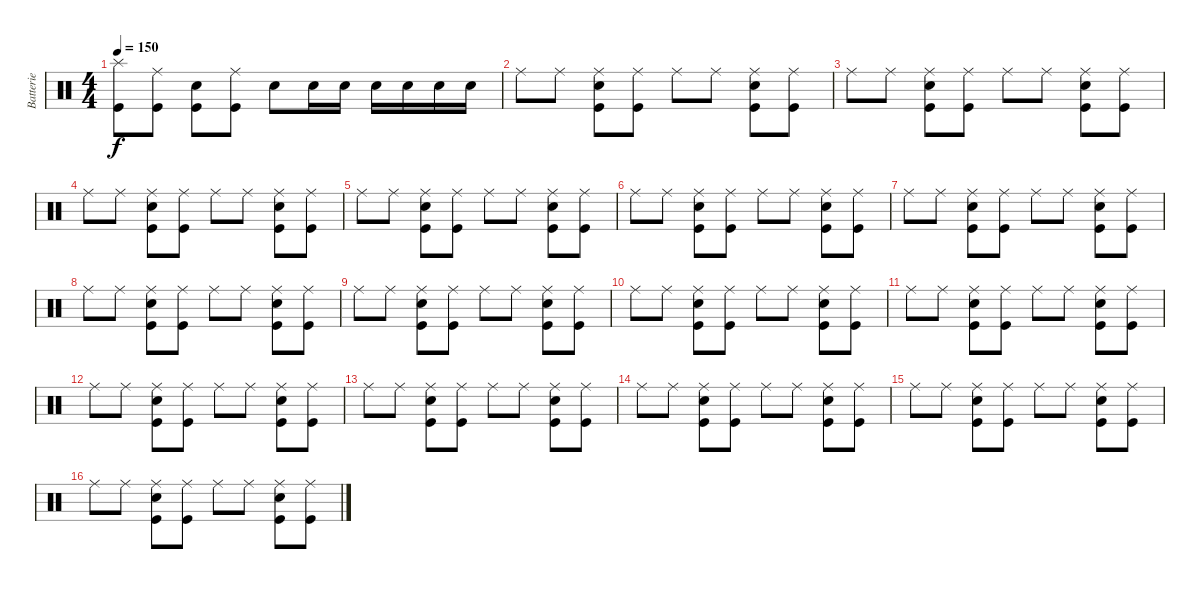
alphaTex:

\track ("Batterie" "Batterie") {instrument percussion}
\staff {score}
\articulation defaults
\ts (4 4)
\tempo 150
\clef neutral
\ks c
("Splash (hit)"{t} "Kick (hit)").8{dy f} ("Ride (middle)" "Kick (hit)").8 ("Electric Snare (hit)" "Kick (hit)").8 ("Ride (middle)" "Kick (hit)").8 "Electric Snare (hit)".8 "Electric Snare (hit)".16 "Electric Snare (hit)".16 "Electric Snare (hit)".16 "Electric Snare (hit)".16 "Electric Snare (hit)".16 "Electric Snare (hit)".16 |
"Ride (middle)".8 "Ride (middle)".8 ("Ride (middle)" "Kick (hit)" "Electric Snare (hit)").8 ("Ride (middle)" "Kick (hit)").8 "Ride (middle)".8 "Ride (middle)".8 ("Ride (middle)" "Kick (hit)" "Electric Snare (hit)").8 ("Ride (middle)" "Kick (hit)").8 |
"Ride (middle)".8 "Ride (middle)".8 ("Ride (middle)" "Kick (hit)" "Electric Snare (hit)").8 ("Ride (middle)" "Kick (hit)").8 "Ride (middle)".8 "Ride (middle)".8 ("Ride (middle)" "Kick (hit)" "Electric Snare (hit)").8 ("Ride (middle)" "Kick (hit)").8 |
"Ride (middle)".8 "Ride (middle)".8 ("Ride (middle)" "Kick (hit)" "Electric Snare (hit)").8 ("Ride (middle)" "Kick (hit)").8 "Ride (middle)".8 "Ride (middle)".8 ("Ride (middle)" "Kick (hit)" "Electric Snare (hit)").8 ("Ride (middle)" "Kick (hit)").8 |
"Ride (middle)".8 "Ride (middle)".8 ("Ride (middle)" "Kick (hit)" "Electric Snare (hit)").8 ("Ride (middle)" "Kick (hit)").8 "Ride (middle)".8 "Ride (middle)".8 ("Ride (middle)" "Kick (hit)" "Electric Snare (hit)").8 ("Ride (middle)" "Kick (hit)").8 |
"Ride (middle)".8 "Ride (middle)".8 ("Ride (middle)" "Kick (hit)" "Electric Snare (hit)").8 ("Ride (middle)" "Kick (hit)").8 "Ride (middle)".8 "Ride (middle)".8 ("Ride (middle)" "Kick (hit)" "Electric Snare (hit)").8 ("Ride (middle)" "Kick (hit)").8 |
"Ride (middle)".8 "Ride (middle)".8 ("Ride (middle)" "Kick (hit)" "Electric Snare (hit)").8 ("Ride (middle)" "Kick (hit)").8 "Ride (middle)".8 "Ride (middle)".8 ("Ride (middle)" "Kick (hit)" "Electric Snare (hit)").8 ("Ride (middle)" "Kick (hit)").8 |
"Ride (middle)".8 "Ride (middle)".8 ("Ride (middle)" "Kick (hit)" "Electric Snare (hit)").8 ("Ride (middle)" "Kick (hit)").8 "Ride (middle)".8 "Ride (middle)".8 ("Ride (middle)" "Kick (hit)" "Electric Snare (hit)").8 ("Ride (middle)" "Kick (hit)").8 |
"Ride (middle)".8 "Ride (middle)".8 ("Ride (middle)" "Kick (hit)" "Electric Snare (hit)").8 ("Ride (middle)" "Kick (hit)").8 "Ride (middle)".8 "Ride (middle)".8 ("Ride (middle)" "Kick (hit)" "Electric Snare (hit)").8 ("Ride (middle)" "Kick (hit)").8 |
"Ride (middle)".8 "Ride (middle)".8 ("Ride (middle)" "Kick (hit)" "Electric Snare (hit)").8 ("Ride (middle)" "Kick (hit)").8 "Ride (middle)".8 "Ride (middle)".8 ("Ride (middle)" "Kick (hit)" "Electric Snare (hit)").8 ("Ride (middle)" "Kick (hit)").8 |
"Ride (middle)".8 "Ride (middle)".8 ("Ride (middle)" "Kick (hit)" "Electric Snare (hit)").8 ("Ride (middle)" "Kick (hit)").8 "Ride (middle)".8 "Ride (middle)".8 ("Ride (middle)" "Kick (hit)" "Electric Snare (hit)").8 ("Ride (middle)" "Kick (hit)").8 |
"Ride (middle)".8 "Ride (middle)".8 ("Ride (middle)" "Kick (hit)" "Electric Snare (hit)").8 ("Ride (middle)" "Kick (hit)").8 "Ride (middle)".8 "Ride (middle)".8 ("Ride (middle)" "Kick (hit)" "Electric Snare (hit)").8 ("Ride (middle)" "Kick (hit)").8 |
"Ride (middle)".8 "Ride (middle)".8 ("Ride (middle)" "Kick (hit)" "Electric Snare (hit)").8 ("Ride (middle)" "Kick (hit)").8 "Ride (middle)".8 "Ride (middle)".8 ("Ride (middle)" "Kick (hit)" "Electric Snare (hit)").8 ("Ride (middle)" "Kick (hit)").8 |
"Ride (middle)".8 "Ride (middle)".8 ("Ride (middle)" "Kick (hit)" "Electric Snare (hit)").8 ("Ride (middle)" "Kick (hit)").8 "Ride (middle)".8 "Ride (middle)".8 ("Ride (middle)" "Kick (hit)" "Electric Snare (hit)").8 ("Ride (middle)" "Kick (hit)").8 |
"Ride (middle)".8 "Ride (middle)".8 ("Ride (middle)" "Kick (hit)" "Electric Snare (hit)").8 ("Ride (middle)" "Kick (hit)").8 "Ride (middle)".8 "Ride (middle)".8 ("Ride (middle)" "Kick (hit)" "Electric Snare (hit)").8 ("Ride (middle)" "Kick (hit)").8 |
"Ride (middle)".8 "Ride (middle)".8 ("Ride (middle)" "Kick (hit)" "Electric Snare (hit)").8 ("Ride (middle)" "Kick (hit)").8 "Ride (middle)".8 "Ride (middle)".8 ("Ride (middle)" "Kick (hit)" "Electric Snare (hit)").8 ("Ride (middle)" "Kick (hit)").8
